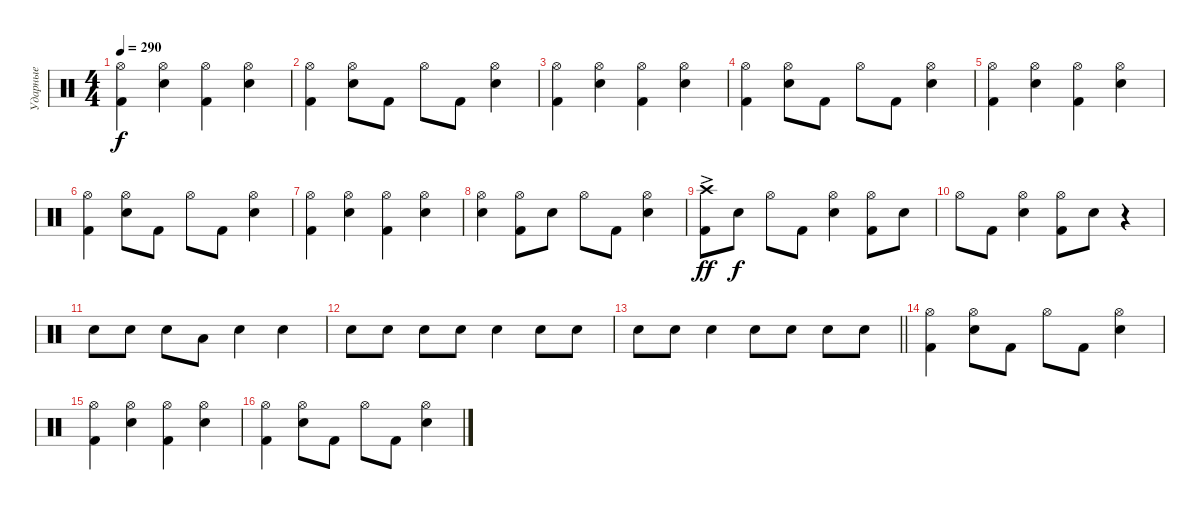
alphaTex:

\track ("Ударные" "Ударные") {instrument percussion}
\staff {score}
\articulation defaults
\ts (4 4)
\tempo 290
\clef neutral
\ks c
("Kick (hit) 2" "Hi-Hat (open)").4{dy f} ("Snare (hit) 2" "Hi-Hat (open)").4 ("Kick (hit) 2" "Hi-Hat (open)").4 ("Snare (hit) 2" "Hi-Hat (open)").4 |
("Kick (hit) 2" "Hi-Hat (open)").4 ("Snare (hit) 2" "Hi-Hat (open)").8 "Kick (hit) 2".8 "Hi-Hat (open)".8 "Kick (hit) 2".8 ("Snare (hit) 2" "Hi-Hat (open)").4 |
("Kick (hit) 2" "Hi-Hat (open)").4 ("Snare (hit) 2" "Hi-Hat (open)").4 ("Kick (hit) 2" "Hi-Hat (open)").4 ("Snare (hit) 2" "Hi-Hat (open)").4 |
("Kick (hit) 2" "Hi-Hat (open)").4 ("Snare (hit) 2" "Hi-Hat (open)").8 "Kick (hit) 2".8 "Hi-Hat (open)".8 "Kick (hit) 2".8 ("Snare (hit) 2" "Hi-Hat (open)").4 |
("Kick (hit) 2" "Hi-Hat (open)").4 ("Snare (hit) 2" "Hi-Hat (open)").4 ("Kick (hit) 2" "Hi-Hat (open)").4 ("Snare (hit) 2" "Hi-Hat (open)").4 |
("Kick (hit) 2" "Hi-Hat (open)").4 ("Snare (hit) 2" "Hi-Hat (open)").8 "Kick (hit) 2".8 "Hi-Hat (open)".8 "Kick (hit) 2".8 ("Snare (hit) 2" "Hi-Hat (open)").4 |
("Kick (hit) 2" "Hi-Hat (open)").4 ("Snare (hit) 2" "Hi-Hat (open)").4 ("Kick (hit) 2" "Hi-Hat (open)").4 ("Snare (hit) 2" "Hi-Hat (open)").4 |
("Snare (hit) 2" "Hi-Hat (open)").4 ("Kick (hit) 2" "Hi-Hat (open)").8 "Snare (hit) 2".8 "Hi-Hat (open)".8 "Kick (hit) 2".8 ("Snare (hit) 2" "Hi-Hat (open)").4 |
("Kick (hit) 2" "Crash high (hit)"{ac}).8{dy ff} "Snare (hit) 2".8{dy f} "Hi-Hat (open)".8 "Kick (hit) 2".8 ("Snare (hit) 2" "Hi-Hat (open)").4 ("Kick (hit) 2" "Hi-Hat (open)").8 "Snare (hit) 2".8 |
"Hi-Hat (open)".8 "Kick (hit) 2".8 ("Snare (hit) 2" "Hi-Hat (open)").4 ("Kick (hit) 2" "Hi-Hat (open)").8 "Snare (hit) 2".8 r.4 |
"Snare (hit) 2".8 "Snare (hit) 2".8 "Snare (hit) 2".8 "Low Tom (hit)".8 "Snare (hit) 2".4 "Snare (hit) 2".4 |
"Snare (hit) 2".8 "Snare (hit) 2".8 "Snare (hit) 2".8 "Snare (hit) 2".8 "Snare (hit) 2".4 "Snare (hit) 2".8 "Snare (hit) 2".8 |
\barLineRight lightlight "Snare (hit) 2".8 "Snare (hit) 2".8 "Snare (hit) 2".4 "Snare (hit) 2".8 "Snare (hit) 2".8 "Snare (hit) 2".8 "Snare (hit) 2".8
|
("Kick (hit) 2" "Hi-Hat (open)").4 ("Snare (hit) 2" "Hi-Hat (open)").8 "Kick (hit) 2".8 "Hi-Hat (open)".8 "Kick (hit) 2".8 ("Snare (hit) 2" "Hi-Hat (open)").4 |
("Kick (hit) 2" "Hi-Hat (open)").4 ("Snare (hit) 2" "Hi-Hat (open)").4 ("Kick (hit) 2" "Hi-Hat (open)").4 ("Snare (hit) 2" "Hi-Hat (open)").4 |
("Kick (hit) 2" "Hi-Hat (open)").4 ("Snare (hit) 2" "Hi-Hat (open)").8 "Kick (hit) 2".8 "Hi-Hat (open)".8 "Kick (hit) 2".8 ("Snare (hit) 2" "Hi-Hat (open)").4
